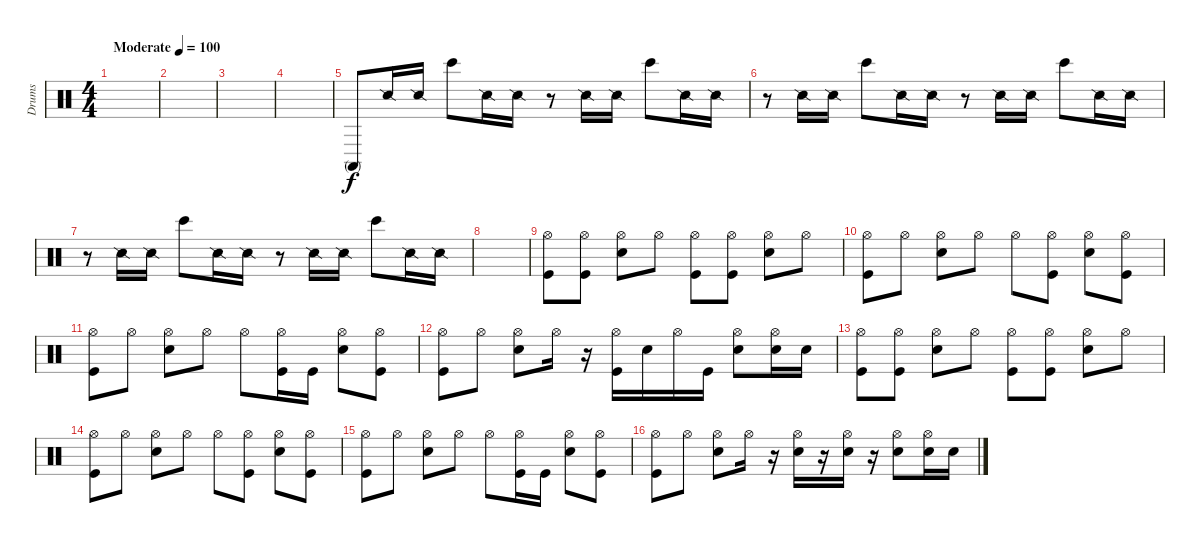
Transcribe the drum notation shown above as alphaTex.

\track ("Drums" "Drums") {instrument percussion}
\staff {score}
\articulation defaults
\ts (4 4)
\tempo (100 "Moderate")
\clef neutral
\ks c
|
|
|
|
"Conga high (mute)".8{volume 9} "Snare (side stick) 2".16 "Snare (side stick) 2".16 "Bongo High (hit)".8 "Snare (side stick) 2".16 "Snare (side stick) 2".16 r.8 "Snare (side stick) 2".16 "Snare (side stick) 2".16 "Bongo High (hit)".8 "Snare (side stick) 2".16 "Snare (side stick) 2".16 |
r.8 "Snare (side stick) 2".16 "Snare (side stick) 2".16 "Bongo High (hit)".8 "Snare (side stick) 2".16 "Snare (side stick) 2".16 r.8 "Snare (side stick) 2".16 "Snare (side stick) 2".16 "Bongo High (hit)".8 "Snare (side stick) 2".16 "Snare (side stick) 2".16 |
r.8 "Snare (side stick) 2".16 "Snare (side stick) 2".16 "Bongo High (hit)".8 "Snare (side stick) 2".16 "Snare (side stick) 2".16 r.8 "Snare (side stick) 2".16 "Snare (side stick) 2".16 "Bongo High (hit)".8 "Snare (side stick) 2".16 "Snare (side stick) 2".16 |
|
("Kick (hit)" "Hi-Hat (open)").8{volume 10} ("Kick (hit)" "Hi-Hat (open)").8 ("Electric Snare (hit)" "Hi-Hat (open)").8 "Hi-Hat (open)".8 ("Kick (hit)" "Hi-Hat (open)").8 ("Kick (hit)" "Hi-Hat (open)").8 ("Electric Snare (hit)" "Hi-Hat (open)").8 "Hi-Hat (open)".8 |
("Kick (hit)" "Hi-Hat (open)").8 "Hi-Hat (open)".8 ("Electric Snare (hit)" "Hi-Hat (open)").8 "Hi-Hat (open)".8 "Hi-Hat (open)".8 ("Kick (hit)" "Hi-Hat (open)").8 ("Electric Snare (hit)" "Hi-Hat (open)").8 ("Kick (hit)" "Hi-Hat (open)").8 |
("Kick (hit)" "Hi-Hat (open)").8 "Hi-Hat (open)".8 ("Electric Snare (hit)" "Hi-Hat (open)").8 "Hi-Hat (open)".8 "Hi-Hat (open)".8 ("Kick (hit)" "Hi-Hat (open)").16 "Kick (hit)".16 ("Electric Snare (hit)" "Hi-Hat (open)").8 ("Kick (hit)" "Hi-Hat (open)").8 |
("Kick (hit)" "Hi-Hat (open)").8 "Hi-Hat (open)".8 ("Electric Snare (hit)" "Hi-Hat (open)").8 "Hi-Hat (open)".16 r.16 ("Kick (hit)" "Hi-Hat (open)").16 "Electric Snare (hit)".16 "Hi-Hat (open)".16 "Kick (hit)".16 ("Electric Snare (hit)" "Hi-Hat (open)").8 ("Electric Snare (hit)" "Hi-Hat (open)").16 "Electric Snare (hit)".16 |
("Kick (hit)" "Hi-Hat (open)").8 ("Kick (hit)" "Hi-Hat (open)").8 ("Electric Snare (hit)" "Hi-Hat (open)").8 "Hi-Hat (open)".8 ("Kick (hit)" "Hi-Hat (open)").8 ("Kick (hit)" "Hi-Hat (open)").8 ("Electric Snare (hit)" "Hi-Hat (open)").8 "Hi-Hat (open)".8 |
("Kick (hit)" "Hi-Hat (open)").8 "Hi-Hat (open)".8 ("Electric Snare (hit)" "Hi-Hat (open)").8 "Hi-Hat (open)".8 "Hi-Hat (open)".8 ("Kick (hit)" "Hi-Hat (open)").8 ("Electric Snare (hit)" "Hi-Hat (open)").8 ("Kick (hit)" "Hi-Hat (open)").8 |
("Kick (hit)" "Hi-Hat (open)").8 "Hi-Hat (open)".8 ("Electric Snare (hit)" "Hi-Hat (open)").8 "Hi-Hat (open)".8 "Hi-Hat (open)".8 ("Kick (hit)" "Hi-Hat (open)").16 "Kick (hit)".16 ("Electric Snare (hit)" "Hi-Hat (open)").8 ("Kick (hit)" "Hi-Hat (open)").8 |
("Kick (hit)" "Hi-Hat (open)").8 "Hi-Hat (open)".8 ("Electric Snare (hit)" "Hi-Hat (open)").8 "Hi-Hat (open)".16 r.16 ("Electric Snare (hit)" "Hi-Hat (open)").16 r.16 ("Electric Snare (hit)" "Hi-Hat (open)").16 r.16 ("Electric Snare (hit)" "Hi-Hat (open)").8 ("Electric Snare (hit)" "Hi-Hat (open)").16 "Electric Snare (hit)".16
